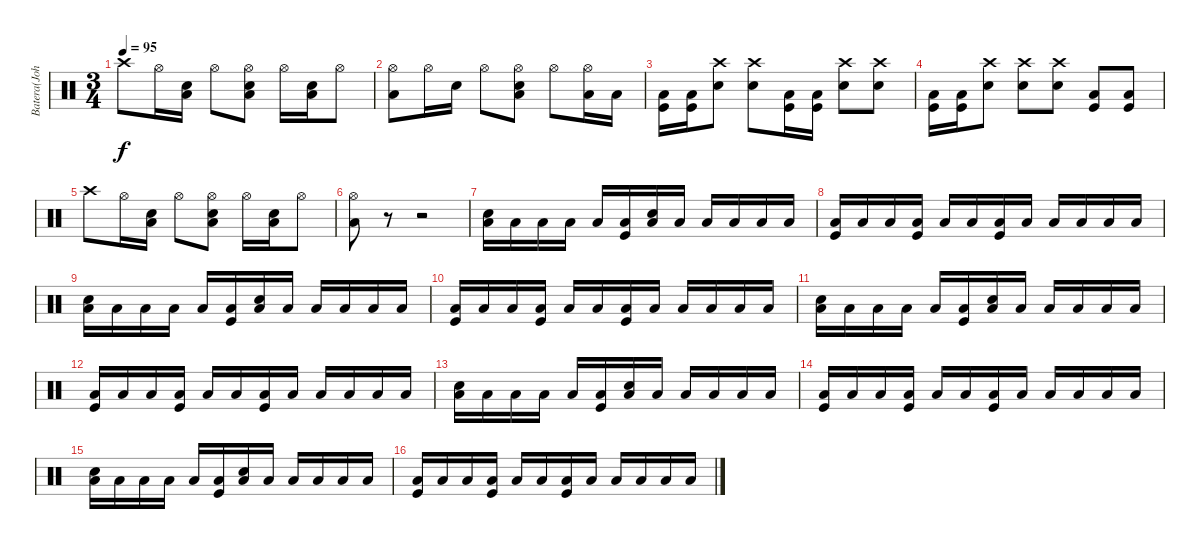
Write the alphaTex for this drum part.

\track ("Batera(John)" "Batera(Joh") {instrument percussion}
\staff {score}
\articulation defaults
\ts (3 4)
\tempo 95
\clef neutral
\ks c "Crash high (hit)".8{dy f} "Hi-Hat (open)".16
("Snare (hit) 2" "Low Tom (hit)").16 "Hi-Hat (open)".8 ("Hi-Hat (open)" "Snare (hit) 2" "Low Tom (hit)").8 "Hi-Hat (open)".16 ("Snare (hit) 2" "Low Tom (hit)").16 "Hi-Hat (open)".8 |
("Hi-Hat (open)" "Low Tom (hit)").8 "Hi-Hat (open)".16 "Snare (hit) 2".16 "Hi-Hat (open)".8 ("Hi-Hat (open)" "Snare (hit) 2" "Low Tom (hit)").8 "Hi-Hat (open)".8 ("Hi-Hat (open)" "Low Tom (hit)").16 "Low Tom (hit)".16 |
("Kick (hit)" "Low Tom (hit)").16 ("Kick (hit)" "Low Tom (hit)").16 ("Crash high (hit)" "Snare (hit) 2").8 ("Crash high (hit)" "Snare (hit) 2").8 ("Kick (hit)" "Low Tom (hit)").16 ("Kick (hit)" "Low Tom (hit)").16 ("Crash high (hit)" "Snare (hit) 2").8 ("Crash high (hit)" "Snare (hit) 2").8 |
("Kick (hit)" "Low Tom (hit)").16 ("Kick (hit)" "Low Tom (hit)").16 ("Crash high (hit)" "Snare (hit) 2").8 ("Crash high (hit)" "Snare (hit) 2").8 ("Crash high (hit)" "Snare (hit) 2").8 ("Kick (hit)" "Low Tom (hit)").8 ("Kick (hit)" "Low Tom (hit)").8 |
"Crash high (hit)".8 "Hi-Hat (open)".16 ("Snare (hit) 2" "Low Tom (hit)").16 "Hi-Hat (open)".8 ("Hi-Hat (open)" "Snare (hit) 2" "Low Tom (hit)").8 "Hi-Hat (open)".16 ("Snare (hit) 2" "Low Tom (hit)").16 "Hi-Hat (open)".8 |
("Hi-Hat (open)" "Low Tom (hit)").8 r.8 r.2 |
("Snare (hit) 2" "Low Tom (hit)").16 "Low Tom (hit)".16 "Low Tom (hit)".16 "Low Tom (hit)".16 "Low Tom (hit)".16 ("Kick (hit)" "Low Tom (hit)").16 ("Snare (hit) 2" "Low Tom (hit)").16 "Low Tom (hit)".16 "Low Tom (hit)".16 "Low Tom (hit)".16 "Low Tom (hit)".16 "Low Tom (hit)".16 |
("Kick (hit)" "Low Tom (hit)").16 "Low Tom (hit)".16 "Low Tom (hit)".16 ("Kick (hit)" "Low Tom (hit)").16 "Low Tom (hit)".16 "Low Tom (hit)".16 ("Kick (hit)" "Low Tom (hit)").16 "Low Tom (hit)".16 "Low Tom (hit)".16 "Low Tom (hit)".16 "Low Tom (hit)".16 "Low Tom (hit)".16 |
("Snare (hit) 2" "Low Tom (hit)").16 "Low Tom (hit)".16 "Low Tom (hit)".16 "Low Tom (hit)".16 "Low Tom (hit)".16 ("Kick (hit)" "Low Tom (hit)").16 ("Snare (hit) 2" "Low Tom (hit)").16 "Low Tom (hit)".16 "Low Tom (hit)".16 "Low Tom (hit)".16 "Low Tom (hit)".16 "Low Tom (hit)".16 |
("Kick (hit)" "Low Tom (hit)").16 "Low Tom (hit)".16 "Low Tom (hit)".16 ("Kick (hit)" "Low Tom (hit)").16 "Low Tom (hit)".16 "Low Tom (hit)".16 ("Kick (hit)" "Low Tom (hit)").16 "Low Tom (hit)".16 "Low Tom (hit)".16 "Low Tom (hit)".16 "Low Tom (hit)".16 "Low Tom (hit)".16 |
("Snare (hit) 2" "Low Tom (hit)").16 "Low Tom (hit)".16 "Low Tom (hit)".16 "Low Tom (hit)".16 "Low Tom (hit)".16 ("Kick (hit)" "Low Tom (hit)").16 ("Snare (hit) 2" "Low Tom (hit)").16 "Low Tom (hit)".16 "Low Tom (hit)".16 "Low Tom (hit)".16 "Low Tom (hit)".16 "Low Tom (hit)".16 |
("Kick (hit)" "Low Tom (hit)").16 "Low Tom (hit)".16 "Low Tom (hit)".16 ("Kick (hit)" "Low Tom (hit)").16 "Low Tom (hit)".16 "Low Tom (hit)".16 ("Kick (hit)" "Low Tom (hit)").16 "Low Tom (hit)".16 "Low Tom (hit)".16 "Low Tom (hit)".16 "Low Tom (hit)".16 "Low Tom (hit)".16 |
("Snare (hit) 2" "Low Tom (hit)").16 "Low Tom (hit)".16 "Low Tom (hit)".16 "Low Tom (hit)".16 "Low Tom (hit)".16 ("Kick (hit)" "Low Tom (hit)").16 ("Snare (hit) 2" "Low Tom (hit)").16 "Low Tom (hit)".16 "Low Tom (hit)".16 "Low Tom (hit)".16 "Low Tom (hit)".16 "Low Tom (hit)".16 |
("Kick (hit)" "Low Tom (hit)").16 "Low Tom (hit)".16 "Low Tom (hit)".16 ("Kick (hit)" "Low Tom (hit)").16 "Low Tom (hit)".16 "Low Tom (hit)".16 ("Kick (hit)" "Low Tom (hit)").16 "Low Tom (hit)".16 "Low Tom (hit)".16 "Low Tom (hit)".16 "Low Tom (hit)".16 "Low Tom (hit)".16 |
("Snare (hit) 2" "Low Tom (hit)").16 "Low Tom (hit)".16 "Low Tom (hit)".16 "Low Tom (hit)".16 "Low Tom (hit)".16 ("Kick (hit)" "Low Tom (hit)").16 ("Snare (hit) 2" "Low Tom (hit)").16 "Low Tom (hit)".16 "Low Tom (hit)".16 "Low Tom (hit)".16 "Low Tom (hit)".16 "Low Tom (hit)".16 |
("Kick (hit)" "Low Tom (hit)").16 "Low Tom (hit)".16 "Low Tom (hit)".16 ("Kick (hit)" "Low Tom (hit)").16 "Low Tom (hit)".16 "Low Tom (hit)".16 ("Kick (hit)" "Low Tom (hit)").16 "Low Tom (hit)".16 "Low Tom (hit)".16 "Low Tom (hit)".16 "Low Tom (hit)".16 "Low Tom (hit)".16
